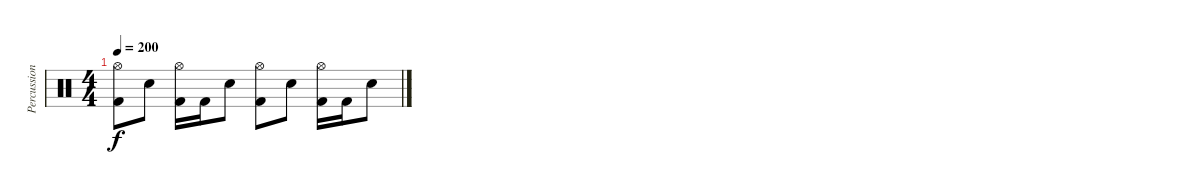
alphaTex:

\track ("Percussion" "Percussion") {instrument percussion}
\staff {score}
\articulation defaults
\ts (4 4)
\tempo 200
\clef neutral
\ks c
("Hi-Hat (open)" "Kick (hit) 2").8{dy f} "Snare (hit) 2".8 ("Hi-Hat (open)" "Kick (hit) 2").16 "Kick (hit) 2".16 "Snare (hit) 2".8 ("Hi-Hat (open)" "Kick (hit) 2").8 "Snare (hit) 2".8 ("Hi-Hat (open)" "Kick (hit) 2").16 "Kick (hit) 2".16 "Snare (hit) 2".8
